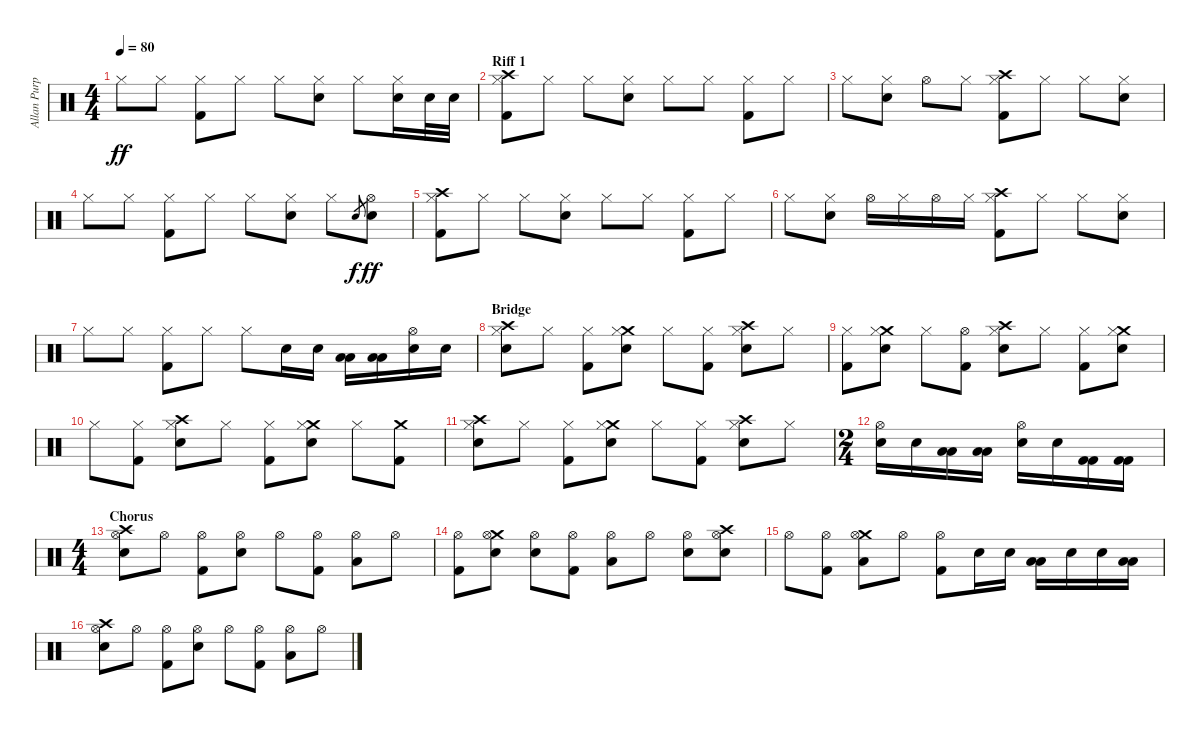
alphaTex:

\track ("Allan Purple" "Allan Purp") {instrument percussion}
\staff {score}
\articulation defaults
\ts (4 4)
\tempo 80
\clef neutral
\ks c "Hi-Hat (closed)".8{dy ff} "Hi-Hat (closed)".8
("Hi-Hat (closed)" "Kick (hit) 2").8 "Hi-Hat (closed)".8 "Hi-Hat (closed)".8 ("Hi-Hat (closed)" "Snare (hit) 2").8 "Hi-Hat (closed)".8 ("Hi-Hat (closed)" "Electric Snare (hit)").16 "Electric Snare (hit)".32 "Electric Snare (hit)".32 |
\section ("" "Riff 1")
("Crash high (hit)" "Hi-Hat (closed)" "Kick (hit) 2").8 "Hi-Hat (closed)".8 "Hi-Hat (closed)".8 ("Hi-Hat (closed)" "Snare (hit) 2").8 "Hi-Hat (closed)".8 "Hi-Hat (closed)".8 ("Hi-Hat (closed)" "Kick (hit) 2").8 "Hi-Hat (closed)".8 |
"Hi-Hat (closed)".8 ("Hi-Hat (closed)" "Snare (hit) 2").8 "Hi-Hat (open)".8 "Hi-Hat (closed)".8 ("Crash high (hit)" "Hi-Hat (closed)" "Kick (hit) 2").8 "Hi-Hat (closed)".8 "Hi-Hat (closed)".8 ("Hi-Hat (closed)" "Snare (hit) 2").8 |
"Hi-Hat (closed)".8 "Hi-Hat (closed)".8 ("Hi-Hat (closed)" "Kick (hit) 2").8 "Hi-Hat (closed)".8 "Hi-Hat (closed)".8 ("Hi-Hat (closed)" "Snare (hit) 2").8 "Hi-Hat (closed)".8 "Electric Snare (hit)".8{gr dy f} ("Hi-Hat (open)" "Electric Snare (hit)").8{dy ff} |
("Crash high (hit)" "Hi-Hat (closed)" "Kick (hit) 2").8 "Hi-Hat (closed)".8 "Hi-Hat (closed)".8 ("Hi-Hat (closed)" "Snare (hit) 2").8 "Hi-Hat (closed)".8 "Hi-Hat (closed)".8 ("Hi-Hat (closed)" "Kick (hit) 2").8 "Hi-Hat (closed)".8 |
"Hi-Hat (closed)".8 ("Hi-Hat (closed)" "Snare (hit) 2").8 "Hi-Hat (open)".16 "Hi-Hat (closed)".16 "Hi-Hat (open)".16 "Hi-Hat (closed)".16 ("Crash high (hit)" "Hi-Hat (closed)" "Kick (hit) 2").8 "Hi-Hat (closed)".8 "Hi-Hat (closed)".8 ("Hi-Hat (closed)" "Snare (hit) 2").8 |
"Hi-Hat (closed)".8 "Hi-Hat (closed)".8 ("Hi-Hat (closed)" "Kick (hit) 2").8 "Hi-Hat (closed)".8 "Hi-Hat (closed)".8 "Electric Snare (hit)".16 "Electric Snare (hit)".16 ("Low Tom (hit)" "Low Tom (hit)").16 ("Low Tom (hit)" "Low Tom (hit)").16 ("Hi-Hat (open)" "Snare (hit) 2").16 "Snare (hit) 2".16 |
\section ("" "Bridge")
("Crash high (hit)" "Hi-Hat (closed)" "Electric Snare (hit)").8 "Hi-Hat (closed)".8 ("Hi-Hat (closed)" "Kick (hit) 2").8 ("Crash medium (hit)" "Hi-Hat (closed)" "Snare (hit) 2").8 "Hi-Hat (closed)".8 ("Hi-Hat (closed)" "Kick (hit) 2").8 ("Crash high (hit)" "Hi-Hat (closed)" "Electric Snare (hit)").8 "Hi-Hat (closed)".8 |
("Hi-Hat (closed)" "Kick (hit) 2").8 ("Crash medium (hit)" "Hi-Hat (closed)" "Snare (hit) 2").8 "Hi-Hat (closed)".8 ("Hi-Hat (open)" "Kick (hit) 2").8 ("Crash high (hit)" "Hi-Hat (closed)" "Electric Snare (hit)").8 "Hi-Hat (closed)".8 ("Hi-Hat (closed)" "Kick (hit) 2").8 ("Crash medium (hit)" "Hi-Hat (closed)" "Snare (hit) 2").8 |
"Hi-Hat (closed)".8 ("Hi-Hat (closed)" "Kick (hit) 2").8 ("Crash high (hit)" "Hi-Hat (closed)" "Electric Snare (hit)").8 "Hi-Hat (closed)".8 ("Hi-Hat (closed)" "Kick (hit) 2").8 ("Crash medium (hit)" "Hi-Hat (closed)" "Snare (hit) 2").8 "Hi-Hat (closed)".8 ("Crash medium (hit)" "Kick (hit) 2").8 |
("Crash high (hit)" "Hi-Hat (closed)" "Electric Snare (hit)").8 "Hi-Hat (closed)".8 ("Hi-Hat (closed)" "Kick (hit) 2").8 ("Crash medium (hit)" "Hi-Hat (closed)" "Snare (hit) 2").8 "Hi-Hat (closed)".8 ("Hi-Hat (closed)" "Kick (hit) 2").8 ("Crash high (hit)" "Hi-Hat (closed)" "Electric Snare (hit)").8 "Hi-Hat (closed)".8 |
\ts (2 4)
("Hi-Hat (open)" "Electric Snare (hit)").16 "Electric Snare (hit)".16 ("Low Tom (hit)" "Low Tom (hit)").16 ("Low Tom (hit)" "Low Tom (hit)").16 ("Hi-Hat (open)" "Snare (hit) 2").16 "Snare (hit) 2".16 ("Kick (hit) 2" "Kick (hit) 2").16 ("Kick (hit) 2" "Kick (hit) 2").16 |
\ts (4 4)
\section ("" "Chorus")
("Crash high (hit)" "Hi-Hat (open)" "Snare (hit) 2").8 "Hi-Hat (open)".8 ("Hi-Hat (open)" "Kick (hit) 2").8 ("Hi-Hat (open)" "Snare (hit) 2").8 "Hi-Hat (open)".8 ("Hi-Hat (open)" "Kick (hit) 2").8 ("Hi-Hat (open)" "Low Tom (hit)").8 "Hi-Hat (open)".8 |
("Hi-Hat (open)" "Kick (hit) 2").8 ("Crash medium (hit)" "Hi-Hat (open)" "Snare (hit) 2").8 ("Hi-Hat (open)" "Electric Snare (hit)").8 ("Hi-Hat (open)" "Kick (hit) 2").8 ("Hi-Hat (open)" "Low Tom (hit)").8 "Hi-Hat (open)".8 ("Hi-Hat (open)" "Snare (hit) 2").8 ("Crash high (hit)" "Hi-Hat (open)" "Snare (hit) 2").8 |
"Hi-Hat (open)".8 ("Hi-Hat (open)" "Kick (hit) 2").8 ("Crash medium (hit)" "Hi-Hat (open)" "Low Tom (hit)").8 "Hi-Hat (open)".8 ("Hi-Hat (open)" "Kick (hit) 2").8 "Electric Snare (hit)".16 "Electric Snare (hit)".16 ("Low Tom (hit)" "Low Tom (hit)").16 "Electric Snare (hit)".16 "Electric Snare (hit)".16 ("Low Tom (hit)" "Low Tom (hit)").16 |
("Crash high (hit)" "Hi-Hat (open)" "Snare (hit) 2").8 "Hi-Hat (open)".8 ("Hi-Hat (open)" "Kick (hit) 2").8 ("Hi-Hat (open)" "Snare (hit) 2").8 "Hi-Hat (open)".8 ("Hi-Hat (open)" "Kick (hit) 2").8 ("Hi-Hat (open)" "Low Tom (hit)").8 "Hi-Hat (open)".8
